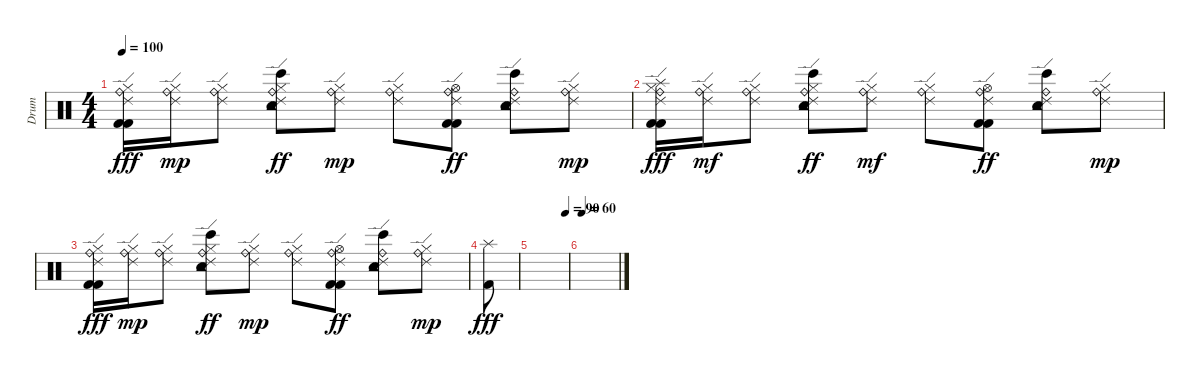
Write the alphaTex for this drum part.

\track ("Drum" "Drum") {instrument percussion}
\staff {score}
\articulation defaults
\ts (4 4)
\tempo 100
\clef neutral
\ks c
("Ride (bell)" "Ride (edge) 2" "Hi-Hat (closed)" "Kick (hit) 2" "Kick (hit) 2").16{dy fff} ("Ride (bell)" "Ride (edge) 2" "Hi-Hat (closed)").16{dy mp} ("Ride (bell)" "Ride (edge) 2" "Hi-Hat (closed)").8 ("Snare (hit) 2" "Ride (bell)" "Ride (edge) 2" "Hi-Hat (closed)" "Bongo High (hit)" "Tambourine (hit)").8{dy ff} ("Ride (bell)" "Ride (edge) 2" "Hi-Hat (closed)").8{dy mp} ("Ride (bell)" "Ride (edge) 2" "Hi-Hat (closed)").8 ("Ride (bell)" "Ride (edge) 2" "Hi-Hat (open)" "Kick (hit) 2" "Kick (hit) 2").8{dy ff} ("Snare (hit) 2" "Ride (bell)" "Ride (edge) 2" "Bongo High (hit)" "Tambourine (hit)").8 ("Ride (bell)" "Ride (edge) 2" "Hi-Hat (closed)").8{dy mp} |
("Splash (hit)" "Ride (bell)" "Ride (edge) 2" "Hi-Hat (closed)" "Kick (hit) 2" "Kick (hit) 2").16{dy fff} ("Ride (bell)" "Ride (edge) 2" "Hi-Hat (closed)").16{dy mf} ("Ride (bell)" "Ride (edge) 2" "Hi-Hat (closed)").8 ("Snare (hit) 2" "Ride (bell)" "Ride (edge) 2" "Hi-Hat (closed)" "Bongo High (hit)" "Tambourine (hit)").8{dy ff} ("Ride (bell)" "Ride (edge) 2" "Hi-Hat (closed)").8{dy mf} ("Ride (bell)" "Ride (edge) 2" "Hi-Hat (closed)").8 ("Ride (bell)" "Ride (edge) 2" "Hi-Hat (open)" "Kick (hit) 2" "Kick (hit) 2").8{dy ff} ("Snare (hit) 2" "Ride (bell)" "Ride (edge) 2" "Bongo High (hit)" "Tambourine (hit)").8 ("Ride (bell)" "Ride (edge) 2" "Hi-Hat (closed)").8{dy mp} |
("Ride (bell)" "Ride (edge) 2" "Hi-Hat (closed)" "Kick (hit) 2" "Kick (hit) 2").16{dy fff} ("Ride (bell)" "Ride (edge) 2" "Hi-Hat (closed)").16{dy mp} ("Ride (bell)" "Ride (edge) 2" "Hi-Hat (closed)").8 ("Snare (hit) 2" "Ride (bell)" "Ride (edge) 2" "Hi-Hat (closed)" "Bongo High (hit)" "Tambourine (hit)").8{dy ff} ("Ride (bell)" "Ride (edge) 2" "Hi-Hat (closed)").8{dy mp} ("Ride (bell)" "Ride (edge) 2" "Hi-Hat (closed)").8 ("Ride (bell)" "Ride (edge) 2" "Hi-Hat (open)" "Kick (hit) 2" "Kick (hit) 2").8{dy ff} ("Snare (hit) 2" "Ride (bell)" "Ride (edge) 2" "Bongo High (hit)" "Tambourine (hit)").8 ("Ride (bell)" "Ride (edge) 2" "Hi-Hat (closed)").8{dy mp} |
("Splash (hit)" "Kick (hit) 2").8{dy fff} |
\tempo (90 0.9375)
|
\tempo 60
